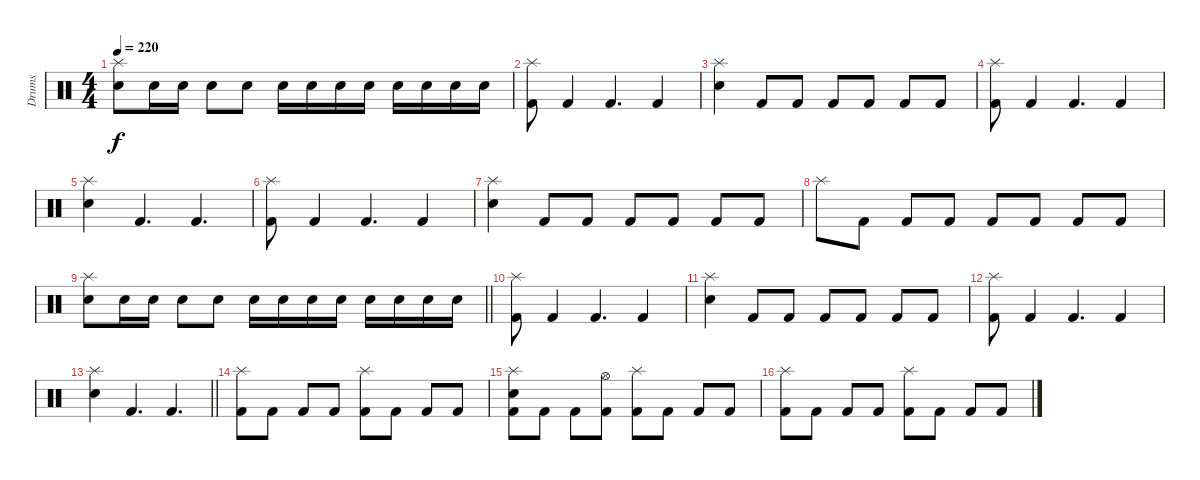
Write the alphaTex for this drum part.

\track ("Drums" "Drums") {instrument percussion}
\staff {score}
\articulation defaults
\ts (4 4)
\tempo 220
\clef neutral
\ks c
("Splash (hit)" "Electric Snare (hit)").8{dy f} "Electric Snare (hit)".16 "Electric Snare (hit)".16 "Electric Snare (hit)".8 "Electric Snare (hit)".8 "Electric Snare (hit)".16 "Electric Snare (hit)".16 "Electric Snare (hit)".16 "Electric Snare (hit)".16 "Electric Snare (hit)".16 "Electric Snare (hit)".16 "Electric Snare (hit)".16 "Electric Snare (hit)".16 |
("Splash (hit)" "Kick (hit) 2").8 "Kick (hit) 2".4 "Kick (hit) 2".4{d} "Kick (hit) 2".4 |
("Splash (hit)" "Electric Snare (hit)").4 "Kick (hit) 2".8 "Kick (hit) 2".8 "Kick (hit) 2".8 "Kick (hit) 2".8 "Kick (hit) 2".8 "Kick (hit) 2".8 |
("Splash (hit)" "Kick (hit) 2").8 "Kick (hit) 2".4 "Kick (hit) 2".4{d} "Kick (hit) 2".4 |
("Splash (hit)" "Electric Snare (hit)").4 "Kick (hit) 2".4{d} "Kick (hit) 2".4{d} |
("Splash (hit)" "Kick (hit) 2").8 "Kick (hit) 2".4 "Kick (hit) 2".4{d} "Kick (hit) 2".4 |
("Splash (hit)" "Electric Snare (hit)").4 "Kick (hit) 2".8 "Kick (hit) 2".8 "Kick (hit) 2".8 "Kick (hit) 2".8 "Kick (hit) 2".8 "Kick (hit) 2".8 |
"Splash (hit)".8 "Kick (hit) 2".8 "Kick (hit) 2".8 "Kick (hit) 2".8 "Kick (hit) 2".8 "Kick (hit) 2".8 "Kick (hit) 2".8 "Kick (hit) 2".8 |
\barLineRight lightlight
("Splash (hit)" "Electric Snare (hit)").8 "Electric Snare (hit)".16 "Electric Snare (hit)".16 "Electric Snare (hit)".8 "Electric Snare (hit)".8 "Electric Snare (hit)".16 "Electric Snare (hit)".16 "Electric Snare (hit)".16 "Electric Snare (hit)".16 "Electric Snare (hit)".16 "Electric Snare (hit)".16 "Electric Snare (hit)".16 "Electric Snare (hit)".16 |
\section ("" "")
("Splash (hit)" "Kick (hit) 2").8 "Kick (hit) 2".4 "Kick (hit) 2".4{d} "Kick (hit) 2".4 |
("Splash (hit)" "Electric Snare (hit)").4 "Kick (hit) 2".8 "Kick (hit) 2".8 "Kick (hit) 2".8 "Kick (hit) 2".8 "Kick (hit) 2".8 "Kick (hit) 2".8 |
("Splash (hit)" "Kick (hit) 2").8 "Kick (hit) 2".4 "Kick (hit) 2".4{d} "Kick (hit) 2".4 |
\barLineRight lightlight
("Splash (hit)" "Electric Snare (hit)").4 "Kick (hit) 2".4{d} "Kick (hit) 2".4{d} |
("Splash (hit)" "Kick (hit) 2").8 "Kick (hit) 2".8 "Kick (hit) 2".8 "Kick (hit) 2".8 ("Splash (hit)" "Kick (hit) 2").8 "Kick (hit) 2".8 "Kick (hit) 2".8 "Kick (hit) 2".8 |
("Splash (hit)" "Electric Snare (hit)" "Kick (hit) 2").8 "Kick (hit) 2".8 "Kick (hit) 2".8 ("Hi-Hat (open)" "Kick (hit) 2").8 ("Splash (hit)" "Kick (hit) 2").8 "Kick (hit) 2".8 "Kick (hit) 2".8 "Kick (hit) 2".8 |
("Splash (hit)" "Kick (hit) 2").8 "Kick (hit) 2".8 "Kick (hit) 2".8 "Kick (hit) 2".8 ("Splash (hit)" "Kick (hit) 2").8 "Kick (hit) 2".8 "Kick (hit) 2".8 "Kick (hit) 2".8
